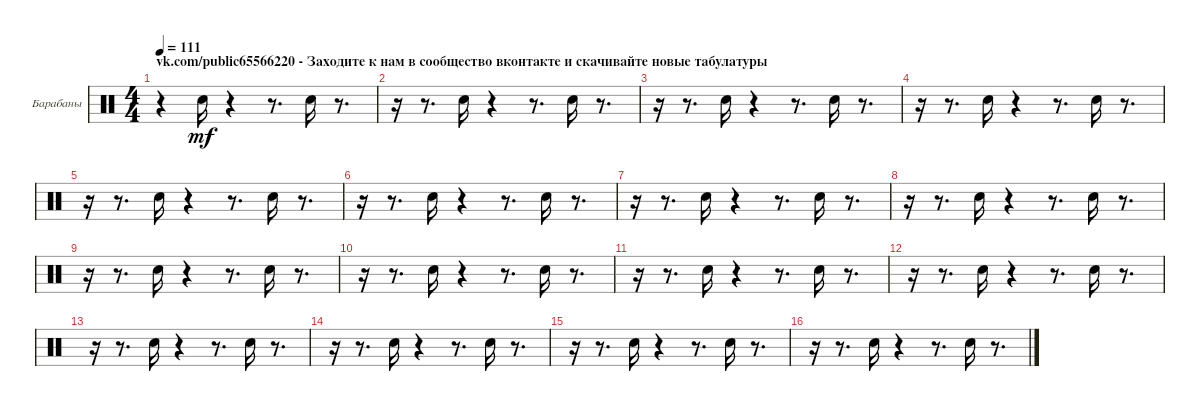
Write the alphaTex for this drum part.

\bracketExtendMode groupsimilarinstruments
\firstSystemTrackNameOrientation horizontal
\otherSystemsTrackNameOrientation horizontal
\track ("Барабаны" "Барабаны") {instrument percussion}
\staff {score}
\articulation defaults
\ts (4 4)
\section ("" "vk.com/public65566220 - Заходите к нам в сообщество вконтакте и скачивайте новые табулатуры")
\tempo 111
\clef neutral
\ks c
r.4{dy mf} "Snare (hit) 2".16 r.4 r.8{d} "Snare (hit) 2".16 r.8{d} |
r.16 r.8{d} "Snare (hit) 2".16 r.4 r.8{d} "Snare (hit) 2".16 r.8{d} |
r.16 r.8{d} "Snare (hit) 2".16 r.4 r.8{d} "Snare (hit) 2".16 r.8{d} |
r.16 r.8{d} "Snare (hit) 2".16 r.4 r.8{d} "Snare (hit) 2".16 r.8{d} |
r.16 r.8{d} "Snare (hit) 2".16 r.4 r.8{d} "Snare (hit) 2".16 r.8{d} |
r.16 r.8{d} "Snare (hit) 2".16 r.4 r.8{d} "Snare (hit) 2".16 r.8{d} |
r.16 r.8{d} "Snare (hit) 2".16 r.4 r.8{d} "Snare (hit) 2".16 r.8{d} |
r.16 r.8{d} "Snare (hit) 2".16 r.4 r.8{d} "Snare (hit) 2".16 r.8{d} |
r.16 r.8{d} "Snare (hit) 2".16 r.4 r.8{d} "Snare (hit) 2".16 r.8{d} |
r.16 r.8{d} "Snare (hit) 2".16 r.4 r.8{d} "Snare (hit) 2".16 r.8{d} |
r.16 r.8{d} "Snare (hit) 2".16 r.4 r.8{d} "Snare (hit) 2".16 r.8{d} |
r.16 r.8{d} "Snare (hit) 2".16 r.4 r.8{d} "Snare (hit) 2".16 r.8{d} |
r.16 r.8{d} "Snare (hit) 2".16 r.4 r.8{d} "Snare (hit) 2".16 r.8{d} |
r.16 r.8{d} "Snare (hit) 2".16 r.4 r.8{d} "Snare (hit) 2".16 r.8{d} |
r.16 r.8{d} "Snare (hit) 2".16 r.4 r.8{d} "Snare (hit) 2".16 r.8{d} |
r.16 r.8{d} "Snare (hit) 2".16 r.4 r.8{d} "Snare (hit) 2".16 r.8{d}
